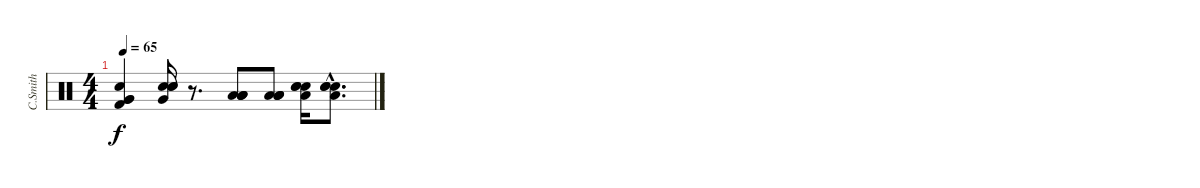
\track ("C.Smith" "C.Smith") {instrument percussion}
\staff {score}
\articulation defaults
\ts (4 4)
\tempo 65
\clef neutral
\ks c
("Very Low Tom (hit)" "Kick (hit) 2" "Snare (hit) 2" "Very Low Tom (hit)").4{dy f} ("Snare (hit) 2" "Very Low Tom (hit)" "Snare (hit) 2" "Snare (hit) 2").16 r.8{d} ("Low Floor Tom (hit)" "Low Floor Tom (hit)" "Low Floor Tom (hit)" "Low Floor Tom (hit)").8 ("Low Floor Tom (hit)" "Low Floor Tom (hit)" "Low Floor Tom (hit)" "Low Floor Tom (hit)").8 ("Snare (hit) 2" "Snare (hit) 2" "Low Floor Tom (hit)" "Snare (hit) 2").16 ("Snare (hit) 2"{hac} "Snare (hit) 2"{hac} "Low Floor Tom (hit)"{hac} "Snare (hit) 2"{hac}).8{d}
